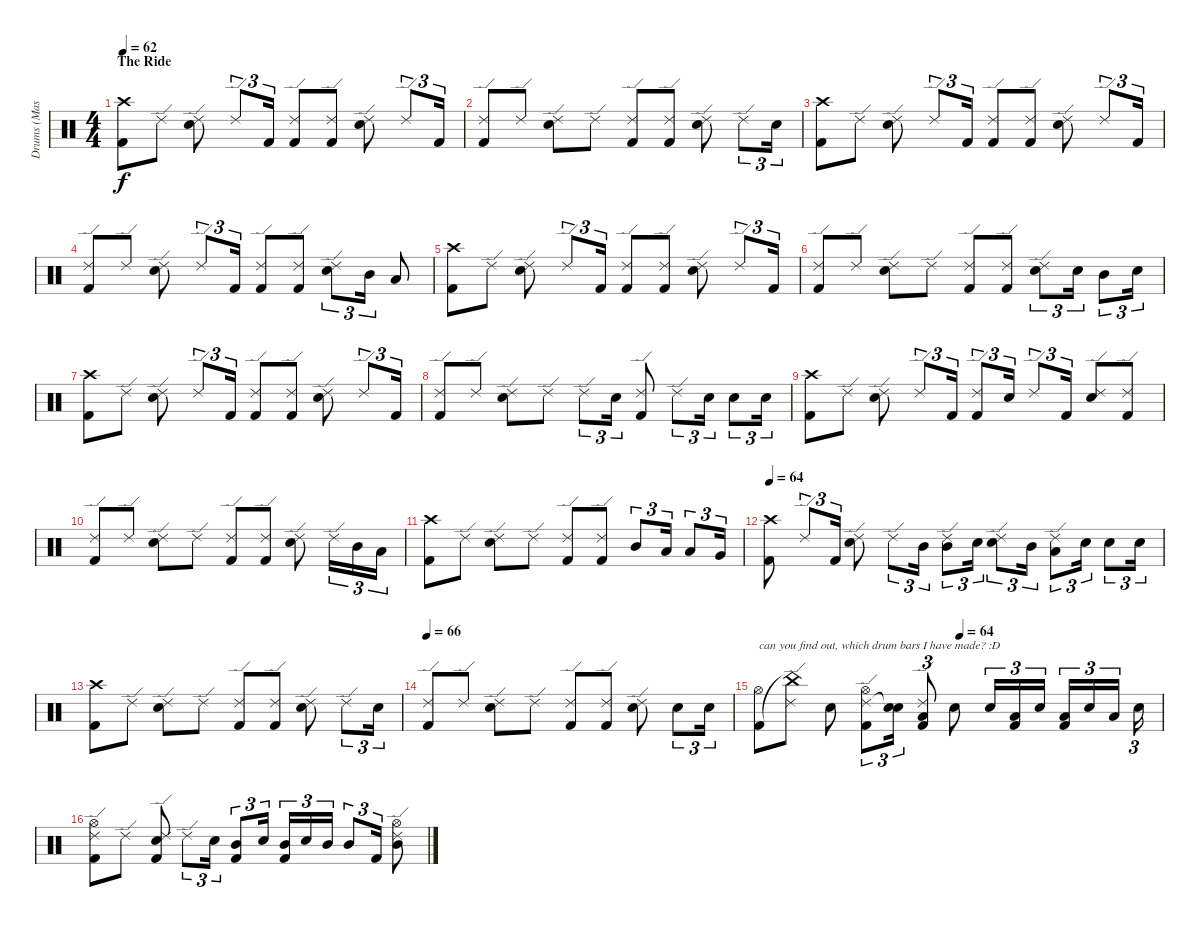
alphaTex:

\track ("Drums (Mason)" "Drums (Mas") {instrument percussion}
\staff {score}
\articulation defaults
\ts (4 4)
\section ("" "The Ride")
\tempo 62
\clef neutral
\ks c
("Crash high (hit)" "Kick (hit) 2").8{dy f} "Ride (edge) 2".8 ("Ride (edge) 2" "Electric Snare (hit)").8 "Ride (edge) 2".8{tu (3 2)} "Kick (hit) 2".16{tu (3 2)} ("Ride (edge) 2" "Kick (hit) 2").8 ("Ride (edge) 2" "Kick (hit) 2").8 ("Ride (edge) 2" "Electric Snare (hit)").8 "Ride (edge) 2".8{tu (3 2)} "Kick (hit) 2".16{tu (3 2)} |
("Ride (edge) 2" "Kick (hit) 2").8 "Ride (edge) 2".8 ("Ride (edge) 2" "Electric Snare (hit)").8 "Ride (edge) 2".8 ("Ride (edge) 2" "Kick (hit) 2").8 ("Ride (edge) 2" "Kick (hit) 2").8 ("Ride (edge) 2" "Electric Snare (hit)").8 "Ride (edge) 2".8{tu (3 2)} "Electric Snare (hit)".16{tu (3 2)} |
("Crash high (hit)" "Kick (hit) 2").8 "Ride (edge) 2".8 ("Ride (edge) 2" "Electric Snare (hit)").8 "Ride (edge) 2".8{tu (3 2)} "Kick (hit) 2".16{tu (3 2)} ("Ride (edge) 2" "Kick (hit) 2").8 ("Ride (edge) 2" "Kick (hit) 2").8 ("Ride (edge) 2" "Electric Snare (hit)").8 "Ride (edge) 2".8{tu (3 2)} "Kick (hit) 2".16{tu (3 2)} |
("Ride (edge) 2" "Kick (hit) 2").8 "Ride (edge) 2".8 ("Ride (edge) 2" "Electric Snare (hit)").8 "Ride (edge) 2".8{tu (3 2)} "Kick (hit) 2".16{tu (3 2)} ("Ride (edge) 2" "Kick (hit) 2").8 ("Ride (edge) 2" "Kick (hit) 2").8 ("Ride (edge) 2" "Electric Snare (hit)").8{tu (3 2)} "Mid Tom (hit)".16{tu (3 2)} "Low Tom (hit)".8 |
("Crash high (hit)" "Kick (hit) 2").8 "Ride (edge) 2".8 ("Ride (edge) 2" "Electric Snare (hit)").8 "Ride (edge) 2".8{tu (3 2)} "Kick (hit) 2".16{tu (3 2)} ("Ride (edge) 2" "Kick (hit) 2").8 ("Ride (edge) 2" "Kick (hit) 2").8 ("Ride (edge) 2" "Electric Snare (hit)").8 "Ride (edge) 2".8{tu (3 2)} "Kick (hit) 2".16{tu (3 2)} |
("Ride (edge) 2" "Kick (hit) 2").8 "Ride (edge) 2".8 ("Ride (edge) 2" "Electric Snare (hit)").8 "Ride (edge) 2".8 ("Ride (edge) 2" "Kick (hit) 2").8 ("Ride (edge) 2" "Kick (hit) 2").8 ("Ride (edge) 2" "Electric Snare (hit)").8{tu (3 2)} "Electric Snare (hit)".16{tu (3 2)} "Mid Tom (hit)".8{tu (3 2)} "Electric Snare (hit)".16{tu (3 2)} |
("Crash high (hit)" "Kick (hit) 2").8 "Ride (edge) 2".8 ("Ride (edge) 2" "Electric Snare (hit)").8 "Ride (edge) 2".8{tu (3 2)} "Kick (hit) 2".16{tu (3 2)} ("Ride (edge) 2" "Kick (hit) 2").8 ("Ride (edge) 2" "Kick (hit) 2").8 ("Ride (edge) 2" "Electric Snare (hit)").8 "Ride (edge) 2".8{tu (3 2)} "Kick (hit) 2".16{tu (3 2)} |
("Ride (edge) 2" "Kick (hit) 2").8 "Ride (edge) 2".8 ("Ride (edge) 2" "Electric Snare (hit)").8 "Ride (edge) 2".8 "Ride (edge) 2".8{tu (3 2)} "Electric Snare (hit)".16{tu (3 2)} ("Ride (edge) 2" "Kick (hit) 2").8 "Ride (edge) 2".8{tu (3 2)} "Electric Snare (hit)".16{tu (3 2)} "Electric Snare (hit)".8{tu (3 2)} "Electric Snare (hit)".16{tu (3 2)} |
("Crash high (hit)" "Kick (hit) 2").8 "Ride (edge) 2".8 ("Ride (edge) 2" "Electric Snare (hit)").8 "Ride (edge) 2".8{tu (3 2)} "Kick (hit) 2".16{tu (3 2)} ("Ride (edge) 2" "Kick (hit) 2").8{tu (3 2)} "Electric Snare (hit)".16{tu (3 2)} "Ride (edge) 2".8{tu (3 2)} "Kick (hit) 2".16{tu (3 2)} ("Ride (edge) 2" "Electric Snare (hit)").8 ("Ride (edge) 2" "Kick (hit) 2").8 |
("Ride (edge) 2" "Kick (hit) 2").8 "Ride (edge) 2".8 ("Ride (edge) 2" "Electric Snare (hit)").8 "Ride (edge) 2".8 ("Ride (edge) 2" "Kick (hit) 2").8 ("Ride (edge) 2" "Kick (hit) 2").8 ("Ride (edge) 2" "Electric Snare (hit)").8 "Ride (edge) 2".16{tu (3 2)} "Mid Tom (hit)".16{tu (3 2)} "Low Tom (hit)".16{tu (3 2)} |
("Crash high (hit)" "Kick (hit) 2").8 "Ride (edge) 2".8 ("Ride (edge) 2" "Electric Snare (hit)").8 "Ride (edge) 2".8 ("Ride (edge) 2" "Kick (hit) 2").8 ("Ride (edge) 2" "Kick (hit) 2").8 "Mid Tom (hit)".8{tu (3 2)} "Low Tom (hit)".16{tu (3 2)} "Low Tom (hit)".8{tu (3 2)} "Very Low Tom (hit)".16{tu (3 2)} |
\tempo 64
("Crash high (hit)" "Kick (hit) 2").8 "Ride (edge) 2".8{tu (3 2)} "Kick (hit) 2".16{tu (3 2)} ("Ride (edge) 2" "Electric Snare (hit)").8 "Ride (edge) 2".8{tu (3 2)} "Mid Tom (hit)".16{tu (3 2)} ("Ride (edge) 2" "Mid Tom (hit)").8{tu (3 2)} "Electric Snare (hit)".16{tu (3 2)} ("Ride (edge) 2" "Electric Snare (hit)").8{tu (3 2)} "Mid Tom (hit)".16{tu (3 2)} ("Ride (edge) 2" "Low Tom (hit)").8{tu (3 2)} "Electric Snare (hit)".16{tu (3 2)} "Electric Snare (hit)".8{tu (3 2)} "Electric Snare (hit)".16{tu (3 2)} |
("Crash high (hit)" "Kick (hit) 2").8 "Ride (edge) 2".8 ("Ride (edge) 2" "Electric Snare (hit)").8 "Ride (edge) 2".8 ("Ride (edge) 2" "Kick (hit) 2").8 ("Ride (edge) 2" "Kick (hit) 2").8 ("Ride (edge) 2" "Electric Snare (hit)").8 "Ride (edge) 2".8{tu (3 2)} "Electric Snare (hit)".16{tu (3 2)} |
\tempo 66
("Ride (edge) 2" "Kick (hit) 2").8 "Ride (edge) 2".8 ("Ride (edge) 2" "Electric Snare (hit)").8 "Ride (edge) 2".8 ("Ride (edge) 2" "Kick (hit) 2").8 ("Ride (edge) 2" "Kick (hit) 2").8 ("Ride (edge) 2" "Electric Snare (hit)").8 "Electric Snare (hit)".8{tu (3 2)} "Electric Snare (hit)".16{tu (3 2)} |
\tempo (64 0.5)
("Hi-Hat (open)" "Kick (hit) 2").8{txt "can you find out, which drum bars I have made? :D"} ("Ride (edge) 2" "China (hit)"{t}).8 "Electric Snare (hit)".8 ("Ride (edge) 2" "Hi-Hat (open)" "Kick (hit) 2").8{tu (3 2)} ("Snare (hit)"{t} "Electric Snare (hit)").16{tu (3 2)} ("Ride (edge) 2" "Low Tom (hit)" "Kick (hit) 2").8{tu (3 2)} "Electric Snare (hit)".8 "Electric Snare (hit)".16{tu (3 2)} ("Low Tom (hit)" "Kick (hit) 2").16{tu (3 2)} "Electric Snare (hit)".16{tu (3 2)} ("Low Tom (hit)" "Kick (hit) 2").16{tu (3 2)} "Electric Snare (hit)".16{tu (3 2)} "Low Tom (hit)".16{tu (3 2)} "Electric Snare (hit)".16{tu (3 2)} |
("Ride (edge) 2" "Hi-Hat (open)" "Kick (hit) 2").8 "Ride (edge) 2".8 ("Ride (edge) 2" "Electric Snare (hit)" "Kick (hit) 2").8 "Ride (edge) 2".8{tu (3 2)} "Electric Snare (hit)".16{tu (3 2)} ("Mid Tom (hit)" "Kick (hit) 2").8{tu (3 2)} "Electric Snare (hit)".16{tu (3 2)} ("Mid Tom (hit)" "Kick (hit) 2").16{tu (3 2)} "Electric Snare (hit)".16{tu (3 2)} "Mid Tom (hit)".16{tu (3 2)} "Mid Tom (hit)".8{tu (3 2)} "Kick (hit) 2".16{tu (3 2)} ("Ride (edge) 2" "Hi-Hat (open)" "Mid Tom (hit)").8
